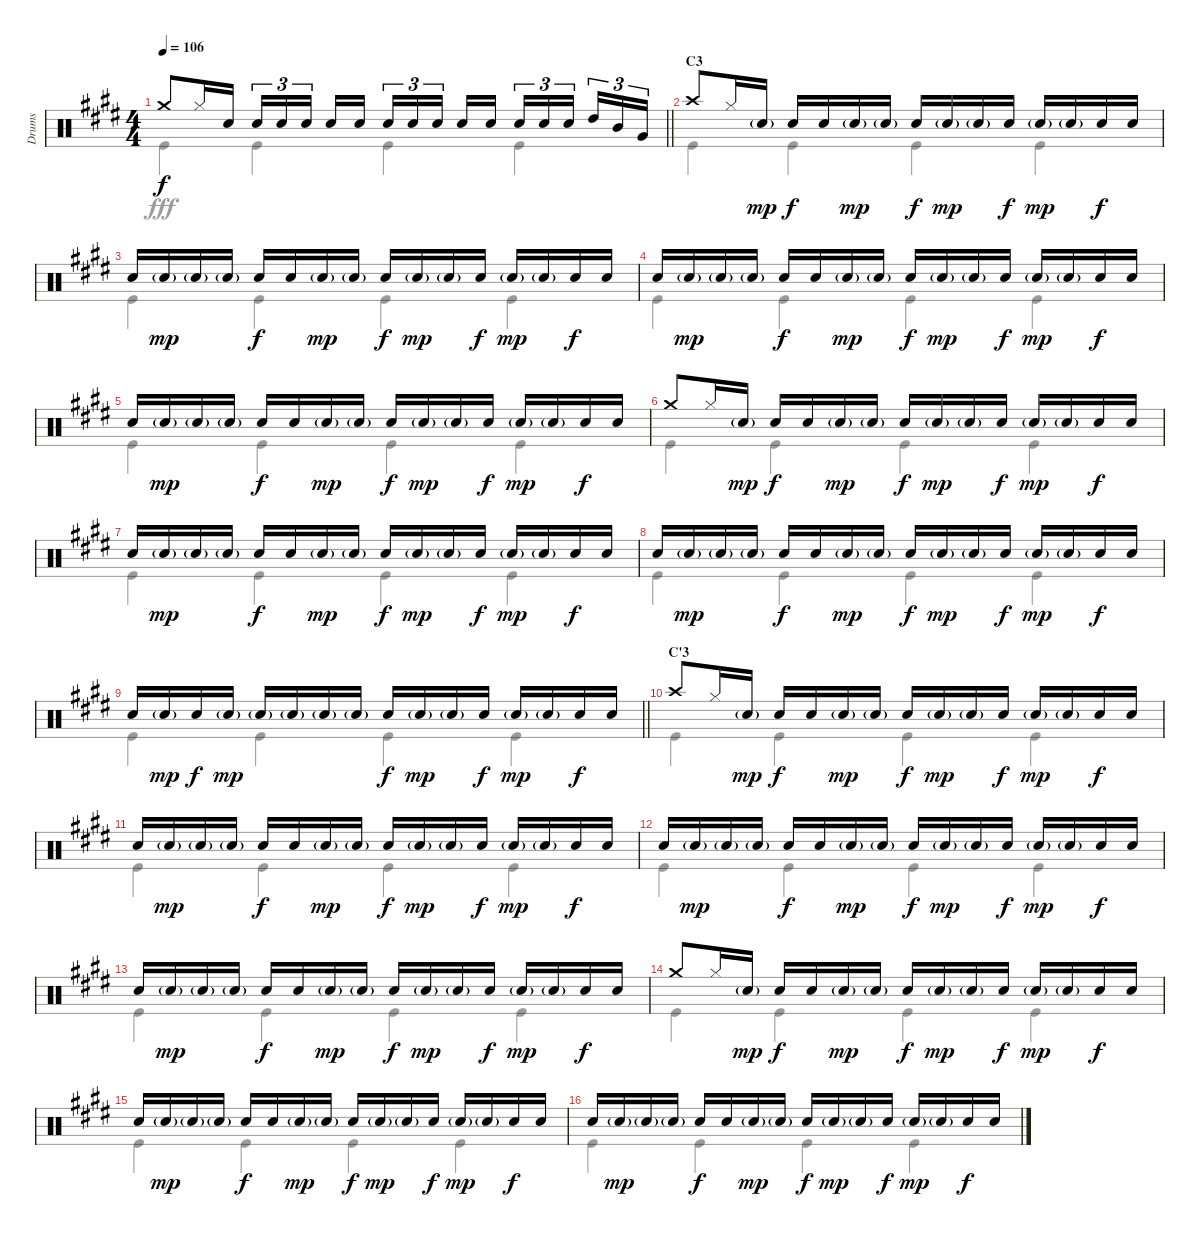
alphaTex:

\track ("Drums" "Drums") {instrument percussion}
\staff {score}
\articulation defaults
\voice
\ts (4 4)
\tempo 106
\clef neutral
\barLineRight lightlight
\ks e "Crash medium (hit)".8{dy f} "Hi-Hat (closed)".16 "Snare (hit) 2".16 "Snare (hit) 2".16{tu (3 2)} "Snare (hit) 2".16{tu (3 2)} "Snare (hit) 2".16{tu (3 2) beam splitsecondary} "Snare (hit) 2".16 "Snare (hit) 2".16 "Snare (hit) 2".16{tu (3 2)} "Snare (hit) 2".16{tu (3 2)} "Snare (hit) 2".16{tu (3 2) beam splitsecondary} "Snare (hit) 2".16 "Snare (hit) 2".16 "Snare (hit) 2".16{tu (3 2)} "Snare (hit) 2".16{tu (3 2)} "Snare (hit) 2".16{tu (3 2) beam splitsecondary} "High Tom (hit)".16{tu (3 2)} "Mid Tom (hit)".16{tu (3 2)} "Very Low Tom (hit)".16{tu (3 2)}
|
\section ("" "C3")
"Crash high (hit)".8 "Hi-Hat (closed)".16 "Snare (hit) 2"{g}.16{dy mp} "Snare (hit) 2".16{dy f} "Snare (hit) 2".16 "Snare (hit) 2"{g}.16{dy mp} "Snare (hit) 2"{g}.16 "Snare (hit) 2".16{dy f} "Snare (hit) 2"{g}.16{dy mp} "Snare (hit) 2"{g}.16 "Snare (hit) 2".16{dy f} "Snare (hit) 2"{g}.16{dy mp} "Snare (hit) 2"{g}.16 "Snare (hit) 2".16{dy f} "Snare (hit) 2".16 |
"Snare (hit) 2".16 "Snare (hit) 2"{g}.16{dy mp} "Snare (hit) 2"{g}.16 "Snare (hit) 2"{g}.16 "Snare (hit) 2".16{dy f} "Snare (hit) 2".16 "Snare (hit) 2"{g}.16{dy mp} "Snare (hit) 2"{g}.16 "Snare (hit) 2".16{dy f} "Snare (hit) 2"{g}.16{dy mp} "Snare (hit) 2"{g}.16 "Snare (hit) 2".16{dy f} "Snare (hit) 2"{g}.16{dy mp} "Snare (hit) 2"{g}.16 "Snare (hit) 2".16{dy f} "Snare (hit) 2".16 |
"Snare (hit) 2".16 "Snare (hit) 2"{g}.16{dy mp} "Snare (hit) 2"{g}.16 "Snare (hit) 2"{g}.16 "Snare (hit) 2".16{dy f} "Snare (hit) 2".16 "Snare (hit) 2"{g}.16{dy mp} "Snare (hit) 2"{g}.16 "Snare (hit) 2".16{dy f} "Snare (hit) 2"{g}.16{dy mp} "Snare (hit) 2"{g}.16 "Snare (hit) 2".16{dy f} "Snare (hit) 2"{g}.16{dy mp} "Snare (hit) 2"{g}.16 "Snare (hit) 2".16{dy f} "Snare (hit) 2".16 |
"Snare (hit) 2".16 "Snare (hit) 2"{g}.16{dy mp} "Snare (hit) 2"{g}.16 "Snare (hit) 2"{g}.16 "Snare (hit) 2".16{dy f} "Snare (hit) 2".16 "Snare (hit) 2"{g}.16{dy mp} "Snare (hit) 2"{g}.16 "Snare (hit) 2".16{dy f} "Snare (hit) 2"{g}.16{dy mp} "Snare (hit) 2"{g}.16 "Snare (hit) 2".16{dy f} "Snare (hit) 2"{g}.16{dy mp} "Snare (hit) 2"{g}.16 "Snare (hit) 2".16{dy f} "Snare (hit) 2".16 |
"Crash medium (hit)".8 "Hi-Hat (closed)".16 "Snare (hit) 2"{g}.16{dy mp} "Snare (hit) 2".16{dy f} "Snare (hit) 2".16 "Snare (hit) 2"{g}.16{dy mp} "Snare (hit) 2"{g}.16 "Snare (hit) 2".16{dy f} "Snare (hit) 2"{g}.16{dy mp} "Snare (hit) 2"{g}.16 "Snare (hit) 2".16{dy f} "Snare (hit) 2"{g}.16{dy mp} "Snare (hit) 2"{g}.16 "Snare (hit) 2".16{dy f} "Snare (hit) 2".16 |
"Snare (hit) 2".16 "Snare (hit) 2"{g}.16{dy mp} "Snare (hit) 2"{g}.16 "Snare (hit) 2"{g}.16 "Snare (hit) 2".16{dy f} "Snare (hit) 2".16 "Snare (hit) 2"{g}.16{dy mp} "Snare (hit) 2"{g}.16 "Snare (hit) 2".16{dy f} "Snare (hit) 2"{g}.16{dy mp} "Snare (hit) 2"{g}.16 "Snare (hit) 2".16{dy f} "Snare (hit) 2"{g}.16{dy mp} "Snare (hit) 2"{g}.16 "Snare (hit) 2".16{dy f} "Snare (hit) 2".16 |
"Snare (hit) 2".16 "Snare (hit) 2"{g}.16{dy mp} "Snare (hit) 2"{g}.16 "Snare (hit) 2"{g}.16 "Snare (hit) 2".16{dy f} "Snare (hit) 2".16 "Snare (hit) 2"{g}.16{dy mp} "Snare (hit) 2"{g}.16 "Snare (hit) 2".16{dy f} "Snare (hit) 2"{g}.16{dy mp} "Snare (hit) 2"{g}.16 "Snare (hit) 2".16{dy f} "Snare (hit) 2"{g}.16{dy mp} "Snare (hit) 2"{g}.16 "Snare (hit) 2".16{dy f} "Snare (hit) 2".16 |
\barLineRight lightlight "Snare (hit) 2".16 "Snare (hit) 2"{g}.16{dy mp} "Snare (hit) 2".16{dy f} "Snare (hit) 2"{g}.16{dy mp} "Snare (hit) 2"{g}.16 "Snare (hit) 2"{g}.16 "Snare (hit) 2"{g}.16 "Snare (hit) 2"{g}.16 "Snare (hit) 2".16{dy f} "Snare (hit) 2"{g}.16{dy mp} "Snare (hit) 2"{g}.16 "Snare (hit) 2".16{dy f} "Snare (hit) 2"{g}.16{dy mp} "Snare (hit) 2"{g}.16 "Snare (hit) 2".16{dy f} "Snare (hit) 2".16
|
\section ("" "C'3")
"Crash high (hit)".8 "Hi-Hat (closed)".16 "Snare (hit) 2"{g}.16{dy mp} "Snare (hit) 2".16{dy f} "Snare (hit) 2".16 "Snare (hit) 2"{g}.16{dy mp} "Snare (hit) 2"{g}.16 "Snare (hit) 2".16{dy f} "Snare (hit) 2"{g}.16{dy mp} "Snare (hit) 2"{g}.16 "Snare (hit) 2".16{dy f} "Snare (hit) 2"{g}.16{dy mp} "Snare (hit) 2"{g}.16 "Snare (hit) 2".16{dy f} "Snare (hit) 2".16 |
"Snare (hit) 2".16 "Snare (hit) 2"{g}.16{dy mp} "Snare (hit) 2"{g}.16 "Snare (hit) 2"{g}.16 "Snare (hit) 2".16{dy f} "Snare (hit) 2".16 "Snare (hit) 2"{g}.16{dy mp} "Snare (hit) 2"{g}.16 "Snare (hit) 2".16{dy f} "Snare (hit) 2"{g}.16{dy mp} "Snare (hit) 2"{g}.16 "Snare (hit) 2".16{dy f} "Snare (hit) 2"{g}.16{dy mp} "Snare (hit) 2"{g}.16 "Snare (hit) 2".16{dy f} "Snare (hit) 2".16 |
"Snare (hit) 2".16 "Snare (hit) 2"{g}.16{dy mp} "Snare (hit) 2"{g}.16 "Snare (hit) 2"{g}.16 "Snare (hit) 2".16{dy f} "Snare (hit) 2".16 "Snare (hit) 2"{g}.16{dy mp} "Snare (hit) 2"{g}.16 "Snare (hit) 2".16{dy f} "Snare (hit) 2"{g}.16{dy mp} "Snare (hit) 2"{g}.16 "Snare (hit) 2".16{dy f} "Snare (hit) 2"{g}.16{dy mp} "Snare (hit) 2"{g}.16 "Snare (hit) 2".16{dy f} "Snare (hit) 2".16 |
"Snare (hit) 2".16 "Snare (hit) 2"{g}.16{dy mp} "Snare (hit) 2"{g}.16 "Snare (hit) 2"{g}.16 "Snare (hit) 2".16{dy f} "Snare (hit) 2".16 "Snare (hit) 2"{g}.16{dy mp} "Snare (hit) 2"{g}.16 "Snare (hit) 2".16{dy f} "Snare (hit) 2"{g}.16{dy mp} "Snare (hit) 2"{g}.16 "Snare (hit) 2".16{dy f} "Snare (hit) 2"{g}.16{dy mp} "Snare (hit) 2"{g}.16 "Snare (hit) 2".16{dy f} "Snare (hit) 2".16 |
"Crash medium (hit)".8 "Hi-Hat (closed)".16 "Snare (hit) 2"{g}.16{dy mp} "Snare (hit) 2".16{dy f} "Snare (hit) 2".16 "Snare (hit) 2"{g}.16{dy mp} "Snare (hit) 2"{g}.16 "Snare (hit) 2".16{dy f} "Snare (hit) 2"{g}.16{dy mp} "Snare (hit) 2"{g}.16 "Snare (hit) 2".16{dy f} "Snare (hit) 2"{g}.16{dy mp} "Snare (hit) 2"{g}.16 "Snare (hit) 2".16{dy f} "Snare (hit) 2".16 |
"Snare (hit) 2".16 "Snare (hit) 2"{g}.16{dy mp} "Snare (hit) 2"{g}.16 "Snare (hit) 2"{g}.16 "Snare (hit) 2".16{dy f} "Snare (hit) 2".16 "Snare (hit) 2"{g}.16{dy mp} "Snare (hit) 2"{g}.16 "Snare (hit) 2".16{dy f} "Snare (hit) 2"{g}.16{dy mp} "Snare (hit) 2"{g}.16 "Snare (hit) 2".16{dy f} "Snare (hit) 2"{g}.16{dy mp} "Snare (hit) 2"{g}.16 "Snare (hit) 2".16{dy f} "Snare (hit) 2".16 |
"Snare (hit) 2".16 "Snare (hit) 2"{g}.16{dy mp} "Snare (hit) 2"{g}.16 "Snare (hit) 2"{g}.16 "Snare (hit) 2".16{dy f} "Snare (hit) 2".16 "Snare (hit) 2"{g}.16{dy mp} "Snare (hit) 2"{g}.16 "Snare (hit) 2".16{dy f} "Snare (hit) 2"{g}.16{dy mp} "Snare (hit) 2"{g}.16 "Snare (hit) 2".16{dy f} "Snare (hit) 2"{g}.16{dy mp} "Snare (hit) 2"{g}.16 "Snare (hit) 2".16{dy f} "Snare (hit) 2".16
\voice
\clef neutral
\ottava regular
\simile none
\barLineRight lightlight
\ks e "Kick (hit)".4{dy fff} "Kick (hit)".4 "Kick (hit)".4 "Kick (hit)".4
|
"Kick (hit)".4 "Kick (hit)".4 "Kick (hit)".4 "Kick (hit)".4 |
"Kick (hit)".4 "Kick (hit)".4 "Kick (hit)".4 "Kick (hit)".4 |
"Kick (hit)".4 "Kick (hit)".4 "Kick (hit)".4 "Kick (hit)".4 |
"Kick (hit)".4 "Kick (hit)".4 "Kick (hit)".4 "Kick (hit)".4 |
"Kick (hit)".4 "Kick (hit)".4 "Kick (hit)".4 "Kick (hit)".4 |
"Kick (hit)".4 "Kick (hit)".4 "Kick (hit)".4 "Kick (hit)".4 |
"Kick (hit)".4 "Kick (hit)".4 "Kick (hit)".4 "Kick (hit)".4 |
\barLineRight lightlight "Kick (hit)".4 "Kick (hit)".4 "Kick (hit)".4 "Kick (hit)".4
|
"Kick (hit)".4 "Kick (hit)".4 "Kick (hit)".4 "Kick (hit)".4 |
"Kick (hit)".4 "Kick (hit)".4 "Kick (hit)".4 "Kick (hit)".4 |
"Kick (hit)".4 "Kick (hit)".4 "Kick (hit)".4 "Kick (hit)".4 |
"Kick (hit)".4 "Kick (hit)".4 "Kick (hit)".4 "Kick (hit)".4 |
"Kick (hit)".4 "Kick (hit)".4 "Kick (hit)".4 "Kick (hit)".4 |
"Kick (hit)".4 "Kick (hit)".4 "Kick (hit)".4 "Kick (hit)".4 |
"Kick (hit)".4 "Kick (hit)".4 "Kick (hit)".4 "Kick (hit)".4
